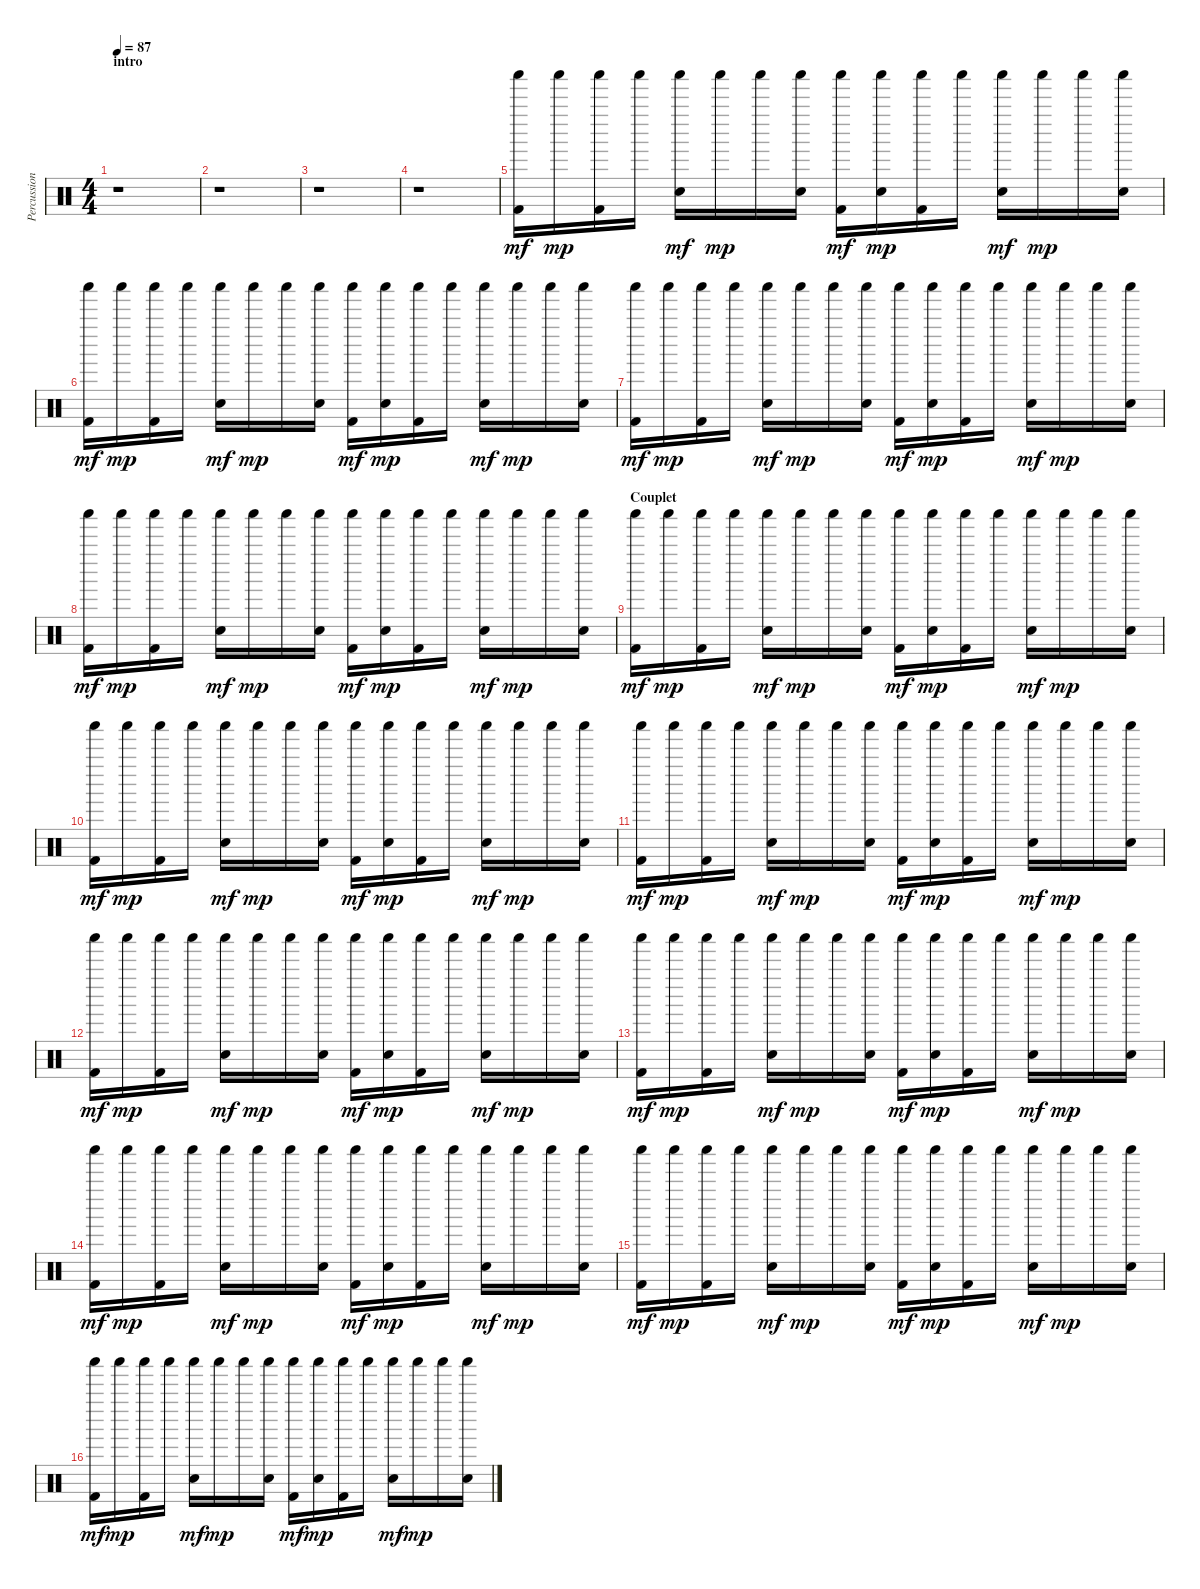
\track ("Percussions" "Percussion") {instrument percussion}
\staff {score}
\articulation defaults
\ts (4 4)
\section ("" "intro")
\tempo 87
\clef neutral
\ks c
r.1{dy mf} |
r.1 |
r.1 |
r.1 |
("Shaker (hit)" "Kick (hit) 2").16 "Shaker (hit)".16{dy mp} ("Shaker (hit)" "Kick (hit) 2").16 "Shaker (hit)".16 ("Shaker (hit)" "Electric Snare (hit)").16{dy mf} "Shaker (hit)".16{dy mp} "Shaker (hit)".16 ("Shaker (hit)" "Electric Snare (hit)").16 ("Shaker (hit)" "Kick (hit) 2").16{dy mf} ("Shaker (hit)" "Electric Snare (hit)").16{dy mp} ("Shaker (hit)" "Kick (hit) 2").16 "Shaker (hit)".16 ("Shaker (hit)" "Electric Snare (hit)").16{dy mf} "Shaker (hit)".16{dy mp} "Shaker (hit)".16 ("Shaker (hit)" "Electric Snare (hit)").16 |
("Shaker (hit)" "Kick (hit) 2").16{dy mf} "Shaker (hit)".16{dy mp} ("Shaker (hit)" "Kick (hit) 2").16 "Shaker (hit)".16 ("Shaker (hit)" "Electric Snare (hit)").16{dy mf} "Shaker (hit)".16{dy mp} "Shaker (hit)".16 ("Shaker (hit)" "Electric Snare (hit)").16 ("Shaker (hit)" "Kick (hit) 2").16{dy mf} ("Shaker (hit)" "Electric Snare (hit)").16{dy mp} ("Shaker (hit)" "Kick (hit) 2").16 "Shaker (hit)".16 ("Shaker (hit)" "Electric Snare (hit)").16{dy mf} "Shaker (hit)".16{dy mp} "Shaker (hit)".16 ("Shaker (hit)" "Electric Snare (hit)").16 |
("Shaker (hit)" "Kick (hit) 2").16{dy mf} "Shaker (hit)".16{dy mp} ("Shaker (hit)" "Kick (hit) 2").16 "Shaker (hit)".16 ("Shaker (hit)" "Electric Snare (hit)").16{dy mf} "Shaker (hit)".16{dy mp} "Shaker (hit)".16 ("Shaker (hit)" "Electric Snare (hit)").16 ("Shaker (hit)" "Kick (hit) 2").16{dy mf} ("Shaker (hit)" "Electric Snare (hit)").16{dy mp} ("Shaker (hit)" "Kick (hit) 2").16 "Shaker (hit)".16 ("Shaker (hit)" "Electric Snare (hit)").16{dy mf} "Shaker (hit)".16{dy mp} "Shaker (hit)".16 ("Shaker (hit)" "Electric Snare (hit)").16 |
("Shaker (hit)" "Kick (hit) 2").16{dy mf} "Shaker (hit)".16{dy mp} ("Shaker (hit)" "Kick (hit) 2").16 "Shaker (hit)".16 ("Shaker (hit)" "Electric Snare (hit)").16{dy mf} "Shaker (hit)".16{dy mp} "Shaker (hit)".16 ("Shaker (hit)" "Electric Snare (hit)").16 ("Shaker (hit)" "Kick (hit) 2").16{dy mf} ("Shaker (hit)" "Electric Snare (hit)").16{dy mp} ("Shaker (hit)" "Kick (hit) 2").16 "Shaker (hit)".16 ("Shaker (hit)" "Electric Snare (hit)").16{dy mf} "Shaker (hit)".16{dy mp} "Shaker (hit)".16 ("Shaker (hit)" "Electric Snare (hit)").16 |
\section ("" "Couplet")
("Shaker (hit)" "Kick (hit) 2").16{dy mf} "Shaker (hit)".16{dy mp} ("Shaker (hit)" "Kick (hit) 2").16 "Shaker (hit)".16 ("Shaker (hit)" "Electric Snare (hit)").16{dy mf} "Shaker (hit)".16{dy mp} "Shaker (hit)".16 ("Shaker (hit)" "Electric Snare (hit)").16 ("Shaker (hit)" "Kick (hit) 2").16{dy mf} ("Shaker (hit)" "Electric Snare (hit)").16{dy mp} ("Shaker (hit)" "Kick (hit) 2").16 "Shaker (hit)".16 ("Shaker (hit)" "Electric Snare (hit)").16{dy mf} "Shaker (hit)".16{dy mp} "Shaker (hit)".16 ("Shaker (hit)" "Electric Snare (hit)").16 |
("Shaker (hit)" "Kick (hit) 2").16{dy mf} "Shaker (hit)".16{dy mp} ("Shaker (hit)" "Kick (hit) 2").16 "Shaker (hit)".16 ("Shaker (hit)" "Electric Snare (hit)").16{dy mf} "Shaker (hit)".16{dy mp} "Shaker (hit)".16 ("Shaker (hit)" "Electric Snare (hit)").16 ("Shaker (hit)" "Kick (hit) 2").16{dy mf} ("Shaker (hit)" "Electric Snare (hit)").16{dy mp} ("Shaker (hit)" "Kick (hit) 2").16 "Shaker (hit)".16 ("Shaker (hit)" "Electric Snare (hit)").16{dy mf} "Shaker (hit)".16{dy mp} "Shaker (hit)".16 ("Shaker (hit)" "Electric Snare (hit)").16 |
("Shaker (hit)" "Kick (hit) 2").16{dy mf} "Shaker (hit)".16{dy mp} ("Shaker (hit)" "Kick (hit) 2").16 "Shaker (hit)".16 ("Shaker (hit)" "Electric Snare (hit)").16{dy mf} "Shaker (hit)".16{dy mp} "Shaker (hit)".16 ("Shaker (hit)" "Electric Snare (hit)").16 ("Shaker (hit)" "Kick (hit) 2").16{dy mf} ("Shaker (hit)" "Electric Snare (hit)").16{dy mp} ("Shaker (hit)" "Kick (hit) 2").16 "Shaker (hit)".16 ("Shaker (hit)" "Electric Snare (hit)").16{dy mf} "Shaker (hit)".16{dy mp} "Shaker (hit)".16 ("Shaker (hit)" "Electric Snare (hit)").16 |
("Shaker (hit)" "Kick (hit) 2").16{dy mf} "Shaker (hit)".16{dy mp} ("Shaker (hit)" "Kick (hit) 2").16 "Shaker (hit)".16 ("Shaker (hit)" "Electric Snare (hit)").16{dy mf} "Shaker (hit)".16{dy mp} "Shaker (hit)".16 ("Shaker (hit)" "Electric Snare (hit)").16 ("Shaker (hit)" "Kick (hit) 2").16{dy mf} ("Shaker (hit)" "Electric Snare (hit)").16{dy mp} ("Shaker (hit)" "Kick (hit) 2").16 "Shaker (hit)".16 ("Shaker (hit)" "Electric Snare (hit)").16{dy mf} "Shaker (hit)".16{dy mp} "Shaker (hit)".16 ("Shaker (hit)" "Electric Snare (hit)").16 |
("Shaker (hit)" "Kick (hit) 2").16{dy mf} "Shaker (hit)".16{dy mp} ("Shaker (hit)" "Kick (hit) 2").16 "Shaker (hit)".16 ("Shaker (hit)" "Electric Snare (hit)").16{dy mf} "Shaker (hit)".16{dy mp} "Shaker (hit)".16 ("Shaker (hit)" "Electric Snare (hit)").16 ("Shaker (hit)" "Kick (hit) 2").16{dy mf} ("Shaker (hit)" "Electric Snare (hit)").16{dy mp} ("Shaker (hit)" "Kick (hit) 2").16 "Shaker (hit)".16 ("Shaker (hit)" "Electric Snare (hit)").16{dy mf} "Shaker (hit)".16{dy mp} "Shaker (hit)".16 ("Shaker (hit)" "Electric Snare (hit)").16 |
("Shaker (hit)" "Kick (hit) 2").16{dy mf} "Shaker (hit)".16{dy mp} ("Shaker (hit)" "Kick (hit) 2").16 "Shaker (hit)".16 ("Shaker (hit)" "Electric Snare (hit)").16{dy mf} "Shaker (hit)".16{dy mp} "Shaker (hit)".16 ("Shaker (hit)" "Electric Snare (hit)").16 ("Shaker (hit)" "Kick (hit) 2").16{dy mf} ("Shaker (hit)" "Electric Snare (hit)").16{dy mp} ("Shaker (hit)" "Kick (hit) 2").16 "Shaker (hit)".16 ("Shaker (hit)" "Electric Snare (hit)").16{dy mf} "Shaker (hit)".16{dy mp} "Shaker (hit)".16 ("Shaker (hit)" "Electric Snare (hit)").16 |
("Shaker (hit)" "Kick (hit) 2").16{dy mf} "Shaker (hit)".16{dy mp} ("Shaker (hit)" "Kick (hit) 2").16 "Shaker (hit)".16 ("Shaker (hit)" "Electric Snare (hit)").16{dy mf} "Shaker (hit)".16{dy mp} "Shaker (hit)".16 ("Shaker (hit)" "Electric Snare (hit)").16 ("Shaker (hit)" "Kick (hit) 2").16{dy mf} ("Shaker (hit)" "Electric Snare (hit)").16{dy mp} ("Shaker (hit)" "Kick (hit) 2").16 "Shaker (hit)".16 ("Shaker (hit)" "Electric Snare (hit)").16{dy mf} "Shaker (hit)".16{dy mp} "Shaker (hit)".16 ("Shaker (hit)" "Electric Snare (hit)").16 |
("Shaker (hit)" "Kick (hit) 2").16{dy mf} "Shaker (hit)".16{dy mp} ("Shaker (hit)" "Kick (hit) 2").16 "Shaker (hit)".16 ("Shaker (hit)" "Electric Snare (hit)").16{dy mf} "Shaker (hit)".16{dy mp} "Shaker (hit)".16 ("Shaker (hit)" "Electric Snare (hit)").16 ("Shaker (hit)" "Kick (hit) 2").16{dy mf} ("Shaker (hit)" "Electric Snare (hit)").16{dy mp} ("Shaker (hit)" "Kick (hit) 2").16 "Shaker (hit)".16 ("Shaker (hit)" "Electric Snare (hit)").16{dy mf} "Shaker (hit)".16{dy mp} "Shaker (hit)".16 ("Shaker (hit)" "Electric Snare (hit)").16
